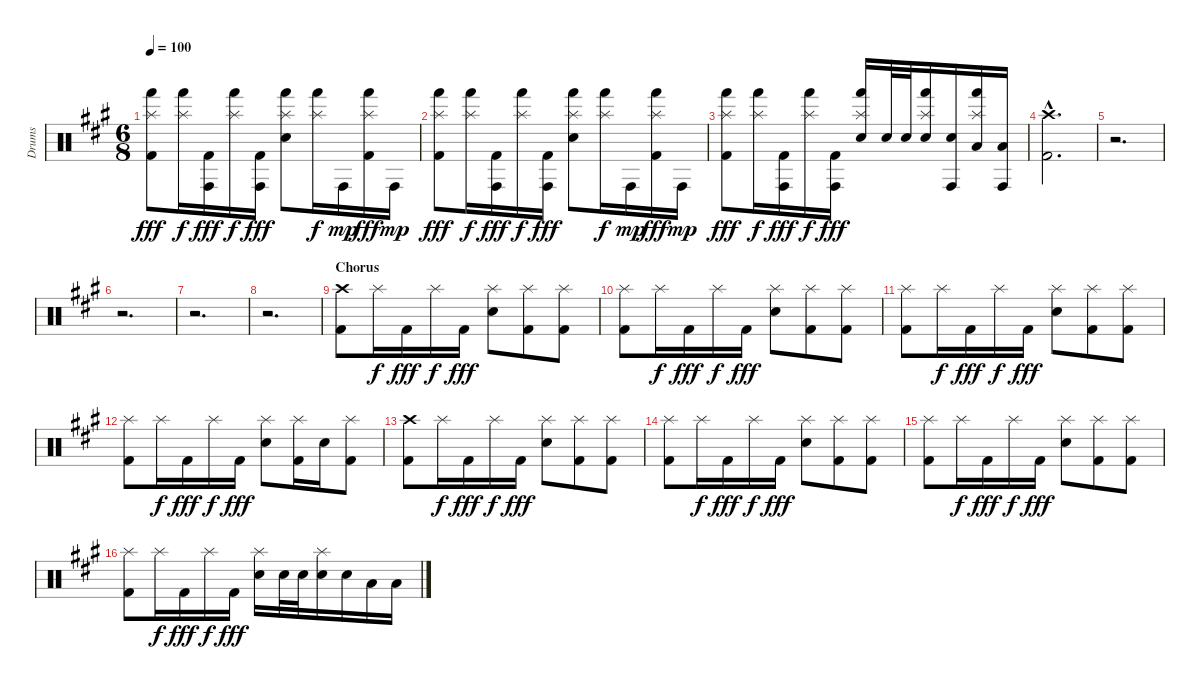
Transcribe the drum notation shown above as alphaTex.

\track ("Drums" "Drums") {instrument percussion}
\staff {score}
\articulation defaults
\ts (6 8)
\tempo 100
\clef neutral
\ks a
("Splash (hit)" "Hand (hit)" "Kick (hit) 2").8{dy fff} ("Splash (hit)" "Hand (hit)").16{dy f} ("Conga high (hit)" "Kick (hit) 2").16{dy fff} ("Splash (hit)" "Hand (hit)").16{dy f} ("Conga high (hit)" "Kick (hit) 2").16{dy fff} ("Splash (hit)" "Hand (hit)" "Electric Snare (hit)").8 ("Splash (hit)" "Hand (hit)").16{dy f} "Conga high (hit)".16{dy mp} ("Splash (hit)" "Hand (hit)" "Kick (hit) 2").16{dy fff} "Conga high (hit)".16{dy mp} |
("Splash (hit)" "Hand (hit)" "Kick (hit) 2").8{dy fff} ("Splash (hit)" "Hand (hit)").16{dy f} ("Conga high (hit)" "Kick (hit) 2").16{dy fff} ("Splash (hit)" "Hand (hit)").16{dy f} ("Conga high (hit)" "Kick (hit) 2").16{dy fff} ("Splash (hit)" "Hand (hit)" "Electric Snare (hit)").8 ("Splash (hit)" "Hand (hit)").16{dy f} "Conga high (hit)".16{dy mp} ("Splash (hit)" "Hand (hit)" "Kick (hit) 2").16{dy fff} "Conga high (hit)".16{dy mp} |
("Splash (hit)" "Hand (hit)" "Kick (hit) 2").8{dy fff} ("Splash (hit)" "Hand (hit)").16{dy f} ("Conga high (hit)" "Kick (hit) 2").16{dy fff} ("Splash (hit)" "Hand (hit)").16{dy f} ("Conga high (hit)" "Kick (hit) 2").16{dy fff} ("Splash (hit)" "Hand (hit)" "Electric Snare (hit)").16 "Electric Snare (hit)".32 "Electric Snare (hit)".32 ("Splash (hit)" "Hand (hit)" "Electric Snare (hit)").16 ("Conga high (hit)" "Electric Snare (hit)").16 ("Splash (hit)" "Hand (hit)" "Low Tom (hit)").16 ("Conga high (hit)" "Low Tom (hit)").16 |
("Crash high (hit)"{hac} "Kick (hit) 2"{hac}).2{d} |
r.2{d} |
r.2{d} |
r.2{d} |
r.2{d} |
\section ("" "Chorus")
("Crash high (hit)" "Kick (hit) 2").8 "Splash (hit)".16{dy f} "Kick (hit) 2".16{dy fff} "Splash (hit)".16{dy f} "Kick (hit) 2".16{dy fff} ("Splash (hit)" "Electric Snare (hit)").8 ("Splash (hit)" "Kick (hit) 2").8 ("Splash (hit)" "Kick (hit) 2").8 |
("Splash (hit)" "Kick (hit) 2").8 "Splash (hit)".16{dy f} "Kick (hit) 2".16{dy fff} "Splash (hit)".16{dy f} "Kick (hit) 2".16{dy fff} ("Splash (hit)" "Electric Snare (hit)").8 ("Splash (hit)" "Kick (hit) 2").8 ("Splash (hit)" "Kick (hit) 2").8 |
("Splash (hit)" "Kick (hit) 2").8 "Splash (hit)".16{dy f} "Kick (hit) 2".16{dy fff} "Splash (hit)".16{dy f} "Kick (hit) 2".16{dy fff} ("Splash (hit)" "Electric Snare (hit)").8 ("Splash (hit)" "Kick (hit) 2").8 ("Splash (hit)" "Kick (hit) 2").8 |
("Splash (hit)" "Kick (hit) 2").8 "Splash (hit)".16{dy f} "Kick (hit) 2".16{dy fff} "Splash (hit)".16{dy f} "Kick (hit) 2".16{dy fff} ("Splash (hit)" "Electric Snare (hit)").8 ("Splash (hit)" "Kick (hit) 2").16 "Electric Snare (hit)".16 ("Splash (hit)" "Kick (hit) 2").8 |
("Crash high (hit)" "Kick (hit) 2").8 "Splash (hit)".16{dy f} "Kick (hit) 2".16{dy fff} "Splash (hit)".16{dy f} "Kick (hit) 2".16{dy fff} ("Splash (hit)" "Electric Snare (hit)").8 ("Splash (hit)" "Kick (hit) 2").8 ("Splash (hit)" "Kick (hit) 2").8 |
("Splash (hit)" "Kick (hit) 2").8 "Splash (hit)".16{dy f} "Kick (hit) 2".16{dy fff} "Splash (hit)".16{dy f} "Kick (hit) 2".16{dy fff} ("Splash (hit)" "Electric Snare (hit)").8 ("Splash (hit)" "Kick (hit) 2").8 ("Splash (hit)" "Kick (hit) 2").8 |
("Splash (hit)" "Kick (hit) 2").8 "Splash (hit)".16{dy f} "Kick (hit) 2".16{dy fff} "Splash (hit)".16{dy f} "Kick (hit) 2".16{dy fff} ("Splash (hit)" "Electric Snare (hit)").8 ("Splash (hit)" "Kick (hit) 2").8 ("Splash (hit)" "Kick (hit) 2").8 |
("Splash (hit)" "Kick (hit) 2").8 "Splash (hit)".16{dy f} "Kick (hit) 2".16{dy fff} "Splash (hit)".16{dy f} "Kick (hit) 2".16{dy fff} ("Splash (hit)" "Electric Snare (hit)").16 "Electric Snare (hit)".32 "Electric Snare (hit)".32 ("Splash (hit)" "Electric Snare (hit)").16 "Electric Snare (hit)".16 "Low Tom (hit)".16 "Low Tom (hit)".16
